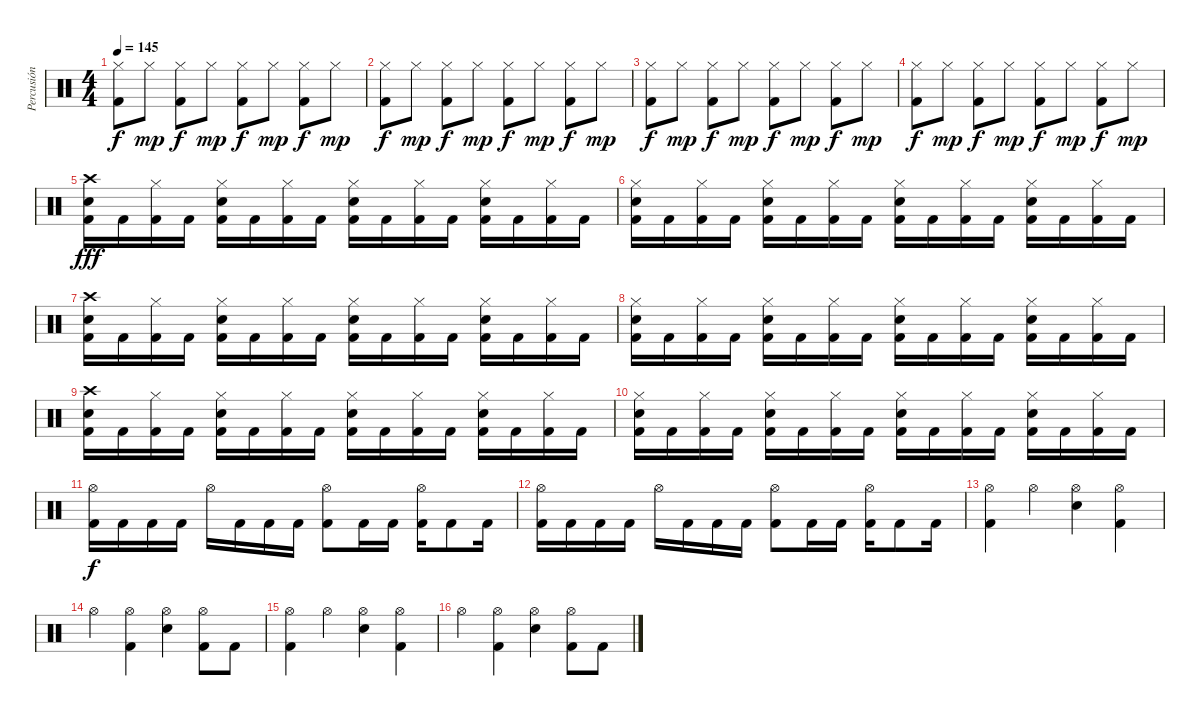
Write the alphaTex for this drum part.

\track ("Percusión" "Percusión") {instrument percussion}
\staff {score}
\articulation defaults
\ts (4 4)
\tempo 145
\clef neutral
\ks c
("Hi-Hat (closed)" "Kick (hit) 2").8{dy f} "Hi-Hat (closed)".8{dy mp} ("Hi-Hat (closed)" "Kick (hit) 2").8{dy f} "Hi-Hat (closed)".8{dy mp} ("Hi-Hat (closed)" "Kick (hit) 2").8{dy f} "Hi-Hat (closed)".8{dy mp} ("Hi-Hat (closed)" "Kick (hit) 2").8{dy f} "Hi-Hat (closed)".8{dy mp} |
("Hi-Hat (closed)" "Kick (hit) 2").8{dy f} "Hi-Hat (closed)".8{dy mp} ("Hi-Hat (closed)" "Kick (hit) 2").8{dy f} "Hi-Hat (closed)".8{dy mp} ("Hi-Hat (closed)" "Kick (hit) 2").8{dy f} "Hi-Hat (closed)".8{dy mp} ("Hi-Hat (closed)" "Kick (hit) 2").8{dy f} "Hi-Hat (closed)".8{dy mp} |
("Hi-Hat (closed)" "Kick (hit) 2").8{dy f} "Hi-Hat (closed)".8{dy mp} ("Hi-Hat (closed)" "Kick (hit) 2").8{dy f} "Hi-Hat (closed)".8{dy mp} ("Hi-Hat (closed)" "Kick (hit) 2").8{dy f} "Hi-Hat (closed)".8{dy mp} ("Hi-Hat (closed)" "Kick (hit) 2").8{dy f} "Hi-Hat (closed)".8{dy mp} |
("Hi-Hat (closed)" "Kick (hit) 2").8{dy f} "Hi-Hat (closed)".8{dy mp} ("Hi-Hat (closed)" "Kick (hit) 2").8{dy f} "Hi-Hat (closed)".8{dy mp} ("Hi-Hat (closed)" "Kick (hit) 2").8{dy f} "Hi-Hat (closed)".8{dy mp} ("Hi-Hat (closed)" "Kick (hit) 2").8{dy f} "Hi-Hat (closed)".8{dy mp} |
("Kick (hit) 2" "Snare (hit) 2" "Crash high (hit)").16{dy fff} "Kick (hit) 2".16 ("Kick (hit) 2" "Hi-Hat (closed)").16 "Kick (hit) 2".16 ("Kick (hit) 2" "Snare (hit) 2" "Hi-Hat (closed)").16 "Kick (hit) 2".16 ("Kick (hit) 2" "Hi-Hat (closed)").16 "Kick (hit) 2".16 ("Kick (hit) 2" "Snare (hit) 2" "Hi-Hat (closed)").16 "Kick (hit) 2".16 ("Kick (hit) 2" "Hi-Hat (closed)").16 "Kick (hit) 2".16 ("Kick (hit) 2" "Snare (hit) 2" "Hi-Hat (closed)").16 "Kick (hit) 2".16 ("Kick (hit) 2" "Hi-Hat (closed)").16 "Kick (hit) 2".16 |
("Kick (hit) 2" "Snare (hit) 2" "Hi-Hat (closed)").16 "Kick (hit) 2".16 ("Kick (hit) 2" "Hi-Hat (closed)").16 "Kick (hit) 2".16 ("Kick (hit) 2" "Snare (hit) 2" "Hi-Hat (closed)").16 "Kick (hit) 2".16 ("Kick (hit) 2" "Hi-Hat (closed)").16 "Kick (hit) 2".16 ("Kick (hit) 2" "Snare (hit) 2" "Hi-Hat (closed)").16 "Kick (hit) 2".16 ("Kick (hit) 2" "Hi-Hat (closed)").16 "Kick (hit) 2".16 ("Kick (hit) 2" "Snare (hit) 2" "Hi-Hat (closed)").16 "Kick (hit) 2".16 ("Kick (hit) 2" "Hi-Hat (closed)").16 "Kick (hit) 2".16 |
("Kick (hit) 2" "Snare (hit) 2" "Crash high (hit)").16 "Kick (hit) 2".16 ("Kick (hit) 2" "Hi-Hat (closed)").16 "Kick (hit) 2".16 ("Kick (hit) 2" "Snare (hit) 2" "Hi-Hat (closed)").16 "Kick (hit) 2".16 ("Kick (hit) 2" "Hi-Hat (closed)").16 "Kick (hit) 2".16 ("Kick (hit) 2" "Snare (hit) 2" "Hi-Hat (closed)").16 "Kick (hit) 2".16 ("Kick (hit) 2" "Hi-Hat (closed)").16 "Kick (hit) 2".16 ("Kick (hit) 2" "Snare (hit) 2" "Hi-Hat (closed)").16 "Kick (hit) 2".16 ("Kick (hit) 2" "Hi-Hat (closed)").16 "Kick (hit) 2".16 |
("Kick (hit) 2" "Snare (hit) 2" "Hi-Hat (closed)").16 "Kick (hit) 2".16 ("Kick (hit) 2" "Hi-Hat (closed)").16 "Kick (hit) 2".16 ("Kick (hit) 2" "Snare (hit) 2" "Hi-Hat (closed)").16 "Kick (hit) 2".16 ("Kick (hit) 2" "Hi-Hat (closed)").16 "Kick (hit) 2".16 ("Kick (hit) 2" "Snare (hit) 2" "Hi-Hat (closed)").16 "Kick (hit) 2".16 ("Kick (hit) 2" "Hi-Hat (closed)").16 "Kick (hit) 2".16 ("Kick (hit) 2" "Snare (hit) 2" "Hi-Hat (closed)").16 "Kick (hit) 2".16 ("Kick (hit) 2" "Hi-Hat (closed)").16 "Kick (hit) 2".16 |
("Kick (hit) 2" "Snare (hit) 2" "Crash high (hit)").16 "Kick (hit) 2".16 ("Kick (hit) 2" "Hi-Hat (closed)").16 "Kick (hit) 2".16 ("Kick (hit) 2" "Snare (hit) 2" "Hi-Hat (closed)").16 "Kick (hit) 2".16 ("Kick (hit) 2" "Hi-Hat (closed)").16 "Kick (hit) 2".16 ("Kick (hit) 2" "Snare (hit) 2" "Hi-Hat (closed)").16 "Kick (hit) 2".16 ("Kick (hit) 2" "Hi-Hat (closed)").16 "Kick (hit) 2".16 ("Kick (hit) 2" "Snare (hit) 2" "Hi-Hat (closed)").16 "Kick (hit) 2".16 ("Kick (hit) 2" "Hi-Hat (closed)").16 "Kick (hit) 2".16 |
("Kick (hit) 2" "Snare (hit) 2" "Hi-Hat (closed)").16 "Kick (hit) 2".16 ("Kick (hit) 2" "Hi-Hat (closed)").16 "Kick (hit) 2".16 ("Kick (hit) 2" "Snare (hit) 2" "Hi-Hat (closed)").16 "Kick (hit) 2".16 ("Kick (hit) 2" "Hi-Hat (closed)").16 "Kick (hit) 2".16 ("Kick (hit) 2" "Snare (hit) 2" "Hi-Hat (closed)").16 "Kick (hit) 2".16 ("Kick (hit) 2" "Hi-Hat (closed)").16 "Kick (hit) 2".16 ("Kick (hit) 2" "Snare (hit) 2" "Hi-Hat (closed)").16 "Kick (hit) 2".16 ("Kick (hit) 2" "Hi-Hat (closed)").16 "Kick (hit) 2".16 |
("Kick (hit) 2" "Hi-Hat (open)").16{dy f} "Kick (hit) 2".16 "Kick (hit) 2".16 "Kick (hit) 2".16 "Hi-Hat (open)".16 "Kick (hit) 2".16 "Kick (hit) 2".16 "Kick (hit) 2".16 ("Kick (hit) 2" "Hi-Hat (open)").8 "Kick (hit) 2".16 "Kick (hit) 2".16 ("Kick (hit) 2" "Hi-Hat (open)").16 "Kick (hit) 2".8 "Kick (hit) 2".16 |
("Kick (hit) 2" "Hi-Hat (open)").16 "Kick (hit) 2".16 "Kick (hit) 2".16 "Kick (hit) 2".16 "Hi-Hat (open)".16 "Kick (hit) 2".16 "Kick (hit) 2".16 "Kick (hit) 2".16 ("Kick (hit) 2" "Hi-Hat (open)").8 "Kick (hit) 2".16 "Kick (hit) 2".16 ("Kick (hit) 2" "Hi-Hat (open)").16 "Kick (hit) 2".8 "Kick (hit) 2".16 |
("Kick (hit) 2" "Hi-Hat (open)").4 "Hi-Hat (open)".4 ("Snare (hit) 2" "Hi-Hat (open)").4 ("Kick (hit) 2" "Hi-Hat (open)").4 |
"Hi-Hat (open)".4 ("Kick (hit) 2" "Hi-Hat (open)").4 ("Snare (hit) 2" "Hi-Hat (open)").4 ("Kick (hit) 2" "Hi-Hat (open)").8 "Kick (hit) 2".8 |
("Kick (hit) 2" "Hi-Hat (open)").4 "Hi-Hat (open)".4 ("Snare (hit) 2" "Hi-Hat (open)").4 ("Kick (hit) 2" "Hi-Hat (open)").4 |
"Hi-Hat (open)".4 ("Kick (hit) 2" "Hi-Hat (open)").4 ("Snare (hit) 2" "Hi-Hat (open)").4 ("Kick (hit) 2" "Hi-Hat (open)").8 "Kick (hit) 2".8
